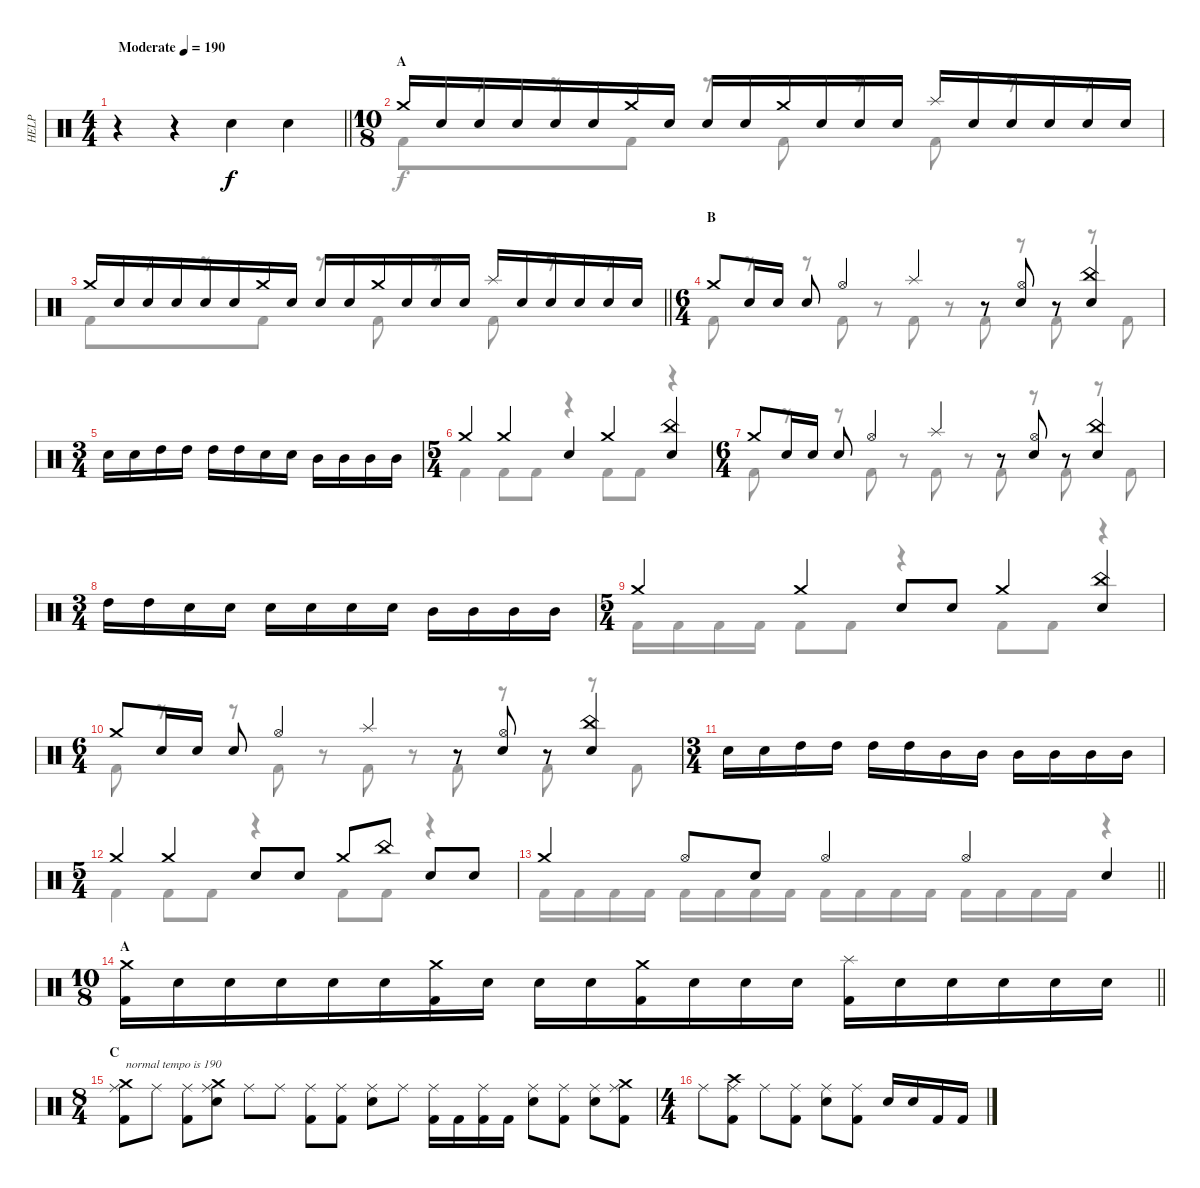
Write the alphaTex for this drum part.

\track ("HELP" "HELP") {instrument percussion}
\staff {score}
\articulation defaults
\voice
\ts (4 4)
\tempo (190 "Moderate")
\clef neutral
\barLineRight lightlight
\ks c
r.4{dy f} r.4 "Electric Snare (hit)".4 "Electric Snare (hit)".4 |
\ts (10 8)
\section ("" "A")
"Crash medium (hit)".16 "Electric Snare (hit)".16 "Electric Snare (hit)".16 "Electric Snare (hit)".16 "Electric Snare (hit)".16 "Electric Snare (hit)".16 "Crash medium (hit)".16 "Electric Snare (hit)".16 "Electric Snare (hit)".16 "Electric Snare (hit)".16 "Crash medium (hit)".16 "Electric Snare (hit)".16 "Electric Snare (hit)".16 "Electric Snare (hit)".16 "Splash (hit)".16 "Electric Snare (hit)".16 "Electric Snare (hit)".16 "Electric Snare (hit)".16 "Electric Snare (hit)".16 "Electric Snare (hit)".16 |
\barLineRight lightlight "Crash medium (hit)".16 "Electric Snare (hit)".16 "Electric Snare (hit)".16 "Electric Snare (hit)".16 "Electric Snare (hit)".16 "Electric Snare (hit)".16 "Crash medium (hit)".16 "Electric Snare (hit)".16 "Electric Snare (hit)".16 "Electric Snare (hit)".16 "Crash medium (hit)".16 "Electric Snare (hit)".16 "Electric Snare (hit)".16 "Electric Snare (hit)".16 "Splash (hit)".16 "Electric Snare (hit)".16 "Electric Snare (hit)".16 "Electric Snare (hit)".16 "Electric Snare (hit)".16 "Electric Snare (hit)".16
|
\ts (6 4)
\section ("" "B")
"Crash medium (hit)".8 "Electric Snare (hit)".16 "Electric Snare (hit)".16 "Electric Snare (hit)".8 "Hi-Hat (open)".4 "Splash (hit)".4 r.8 ("Hi-Hat (open)" "Electric Snare (hit)").8 r.8 ("China (hit)" "Electric Snare (hit)").4 |
\ts (3 4)
"Electric Snare (hit)".16 "Electric Snare (hit)".16 "High Tom (hit)".16 "High Tom (hit)".16 "High Tom (hit)".16 "High Tom (hit)".16 "Electric Snare (hit)".16 "Electric Snare (hit)".16 "Mid Tom (hit)".16 "Mid Tom (hit)".16 "Mid Tom (hit)".16 "Mid Tom (hit)".16 |
\ts (5 4)
"Crash medium (hit)".4 "Crash medium (hit)".4 "Electric Snare (hit)".4 "Crash medium (hit)".4 ("China (hit)" "Electric Snare (hit)").4 |
\ts (6 4)
"Crash medium (hit)".8 "Electric Snare (hit)".16 "Electric Snare (hit)".16 "Electric Snare (hit)".8 "Hi-Hat (open)".4 "Splash (hit)".4 r.8 ("Hi-Hat (open)" "Electric Snare (hit)").8 r.8 ("China (hit)" "Electric Snare (hit)").4 |
\ts (3 4)
"High Tom (hit)".16 "High Tom (hit)".16 "Electric Snare (hit)".16 "Electric Snare (hit)".16 "Electric Snare (hit)".16 "Electric Snare (hit)".16 "Electric Snare (hit)".16 "Electric Snare (hit)".16 "Mid Tom (hit)".16 "Mid Tom (hit)".16 "Mid Tom (hit)".16 "Mid Tom (hit)".16 |
\ts (5 4)
"Crash medium (hit)".4 "Crash medium (hit)".4 "Electric Snare (hit)".8 "Electric Snare (hit)".8 "Crash medium (hit)".4 ("China (hit)" "Electric Snare (hit)").4 |
\ts (6 4)
"Crash medium (hit)".8 "Electric Snare (hit)".16 "Electric Snare (hit)".16 "Electric Snare (hit)".8 "Hi-Hat (open)".4 "Splash (hit)".4 r.8 ("Hi-Hat (open)" "Electric Snare (hit)").8 r.8 ("China (hit)" "Electric Snare (hit)").4 |
\ts (3 4)
"Electric Snare (hit)".16 "Electric Snare (hit)".16 "High Tom (hit)".16 "High Tom (hit)".16 "High Tom (hit)".16 "High Tom (hit)".16 "Mid Tom (hit)".16 "Mid Tom (hit)".16 "Mid Tom (hit)".16 "Mid Tom (hit)".16 "Mid Tom (hit)".16 "Mid Tom (hit)".16 |
\ts (5 4)
"Crash medium (hit)".4 "Crash medium (hit)".4 "Electric Snare (hit)".8 "Electric Snare (hit)".8 "Crash medium (hit)".8 "China (hit)".8 "Electric Snare (hit)".8 "Electric Snare (hit)".8 |
\barLineRight lightlight "Crash medium (hit)".4 "Hi-Hat (open)".8 "Electric Snare (hit)".8 "Hi-Hat (open)".4 "Hi-Hat (open)".4 "Electric Snare (hit)".4
|
\ts (10 8)
\section ("" "A")
\barLineRight lightlight
("Crash medium (hit)" "Kick (hit) 2").16 "Electric Snare (hit)".16 "Electric Snare (hit)".16 "Electric Snare (hit)".16 "Electric Snare (hit)".16 "Electric Snare (hit)".16 ("Crash medium (hit)" "Kick (hit) 2").16 "Electric Snare (hit)".16 "Electric Snare (hit)".16 "Electric Snare (hit)".16 ("Crash medium (hit)" "Kick (hit) 2").16 "Electric Snare (hit)".16 "Electric Snare (hit)".16 "Electric Snare (hit)".16 ("Splash (hit)" "Kick (hit) 2").16 "Electric Snare (hit)".16 "Electric Snare (hit)".16 "Electric Snare (hit)".16 "Electric Snare (hit)".16 "Electric Snare (hit)".16 |
\ts (8 4)
\section ("" "C")
("Crash medium (hit)" "Ride (middle)" "Kick (hit) 2").8{txt "normal tempo is 190"} "Ride (middle)".8 ("Ride (middle)" "Kick (hit) 2").8 ("Crash medium (hit)" "Ride (middle)" "Snare (hit) 2").8 "Ride (middle)".8 "Ride (middle)".8 ("Ride (middle)" "Kick (hit) 2").8 ("Ride (middle)" "Kick (hit) 2").8 ("Ride (middle)" "Snare (hit) 2").8 "Ride (middle)".8 ("Ride (middle)" "Kick (hit) 2").16 "Kick (hit) 2".16 ("Ride (middle)" "Kick (hit) 2").16 "Kick (hit) 2".16 ("Snare (hit) 2" "Ride (middle)").8 ("Ride (middle)" "Kick (hit) 2").8 ("Snare (hit) 2" "Ride (middle)").8 ("Crash medium (hit)" "Ride (middle)" "Kick (hit) 2").8 |
\ts (4 4)
"Ride (middle)".8 ("Crash high (hit)" "Ride (middle)" "Kick (hit) 2").8 "Ride (middle)".8 ("Ride (middle)" "Kick (hit) 2").8 ("Ride (middle)" "Snare (hit) 2").8 ("Ride (middle)" "Kick (hit) 2").8 "Snare (hit) 2".16 "Snare (hit) 2".16 "Kick (hit) 2".16 "Kick (hit) 2".16
\voice
\clef neutral
\ottava regular
\simile none
\barLineRight lightlight
\ks c
|
"Kick (hit) 2".8 r.8 r.8 "Kick (hit) 2".8 r.8 "Kick (hit) 2".8 r.8 "Kick (hit) 2".8 r.8 r.8 |
\barLineRight lightlight "Kick (hit) 2".8
r.8 r.8 "Kick (hit) 2".8 r.8 "Kick (hit) 2".8 r.8 "Kick (hit) 2".8 r.8 r.8 |
"Kick (hit) 2".8 r.8 r.8 "Kick (hit) 2".8 r.8 "Kick (hit) 2".8 r.8 "Kick (hit) 2".8 r.8 "Kick (hit) 2".8 r.8 "Kick (hit) 2".8 |
|
"Kick (hit) 2".4 "Kick (hit) 2".8 "Kick (hit) 2".8 r.4 "Kick (hit) 2".8 "Kick (hit) 2".8 r.4 |
"Kick (hit) 2".8 r.8 r.8 "Kick (hit) 2".8 r.8 "Kick (hit) 2".8 r.8 "Kick (hit) 2".8 r.8 "Kick (hit) 2".8 r.8 "Kick (hit) 2".8 |
|
"Kick (hit) 2".16 "Kick (hit) 2".16 "Kick (hit) 2".16 "Kick (hit) 2".16 "Kick (hit) 2".8 "Kick (hit) 2".8 r.4 "Kick (hit) 2".8 "Kick (hit) 2".8 r.4 |
"Kick (hit) 2".8 r.8 r.8 "Kick (hit) 2".8 r.8 "Kick (hit) 2".8 r.8 "Kick (hit) 2".8 r.8 "Kick (hit) 2".8 r.8 "Kick (hit) 2".8 |
|
"Kick (hit) 2".4 "Kick (hit) 2".8 "Kick (hit) 2".8 r.4 "Kick (hit) 2".8 "Kick (hit) 2".8 r.4 |
\barLineRight lightlight "Kick (hit) 2".16 "Kick (hit) 2".16 "Kick (hit) 2".16 "Kick (hit) 2".16 "Kick (hit) 2".16 "Kick (hit) 2".16 "Kick (hit) 2".16 "Kick (hit) 2".16 "Kick (hit) 2".16 "Kick (hit) 2".16 "Kick (hit) 2".16 "Kick (hit) 2".16 "Kick (hit) 2".16 "Kick (hit) 2".16 "Kick (hit) 2".16 "Kick (hit) 2".16
r.4 |
\barLineRight lightlight
|
|
